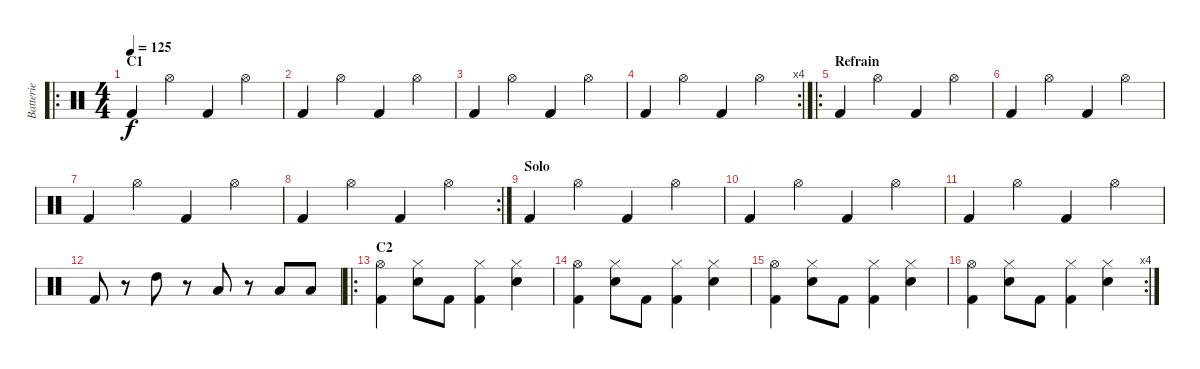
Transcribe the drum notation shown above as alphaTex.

\track ("Batterie" "Batterie") {instrument percussion}
\staff {score}
\articulation defaults
\ro
\ts (4 4)
\section ("" "C1")
\tempo 125
\clef neutral
\ks c "Kick (hit) 2".4{dy f} "Hi-Hat (open)".4 "Kick (hit) 2".4 "Hi-Hat (open)".4
|
"Kick (hit) 2".4 "Hi-Hat (open)".4 "Kick (hit) 2".4 "Hi-Hat (open)".4 |
"Kick (hit) 2".4 "Hi-Hat (open)".4 "Kick (hit) 2".4 "Hi-Hat (open)".4 |
\rc 4 "Kick (hit) 2".4 "Hi-Hat (open)".4 "Kick (hit) 2".4 "Hi-Hat (open)".4
|
\ro
\section ("" "Refrain")
"Kick (hit) 2".4 "Hi-Hat (open)".4 "Kick (hit) 2".4 "Hi-Hat (open)".4 |
"Kick (hit) 2".4 "Hi-Hat (open)".4 "Kick (hit) 2".4 "Hi-Hat (open)".4 |
"Kick (hit) 2".4 "Hi-Hat (open)".4 "Kick (hit) 2".4 "Hi-Hat (open)".4 |
\rc 2 "Kick (hit) 2".4 "Hi-Hat (open)".4 "Kick (hit) 2".4 "Hi-Hat (open)".4
|
\section ("" "Solo")
"Kick (hit) 2".4 "Hi-Hat (open)".4 "Kick (hit) 2".4 "Hi-Hat (open)".4 |
"Kick (hit) 2".4 "Hi-Hat (open)".4 "Kick (hit) 2".4 "Hi-Hat (open)".4 |
"Kick (hit) 2".4 "Hi-Hat (open)".4 "Kick (hit) 2".4 "Hi-Hat (open)".4 |
"Kick (hit) 2".8 r.8 "High Tom (hit)".8 r.8 "Low Tom (hit)".8 r.8 "Low Tom (hit)".8 "Low Floor Tom (hit)".8 |
\ro
\section ("" "C2")
("Hi-Hat (open)" "Kick (hit) 2").4 ("Hi-Hat (closed)" "Snare (hit) 2").8 "Kick (hit) 2".8 ("Hi-Hat (closed)" "Kick (hit) 2").4 ("Hi-Hat (closed)" "Snare (hit) 2").4 |
("Hi-Hat (open)" "Kick (hit) 2").4 ("Hi-Hat (closed)" "Snare (hit) 2").8 "Kick (hit) 2".8 ("Hi-Hat (closed)" "Kick (hit) 2").4 ("Hi-Hat (closed)" "Snare (hit) 2").4 |
("Hi-Hat (open)" "Kick (hit) 2").4 ("Hi-Hat (closed)" "Snare (hit) 2").8 "Kick (hit) 2".8 ("Hi-Hat (closed)" "Kick (hit) 2").4 ("Hi-Hat (closed)" "Snare (hit) 2").4 |
\rc 4
("Hi-Hat (open)" "Kick (hit) 2").4 ("Hi-Hat (closed)" "Snare (hit) 2").8 "Kick (hit) 2".8 ("Hi-Hat (closed)" "Kick (hit) 2").4 ("Hi-Hat (closed)" "Snare (hit) 2").4
